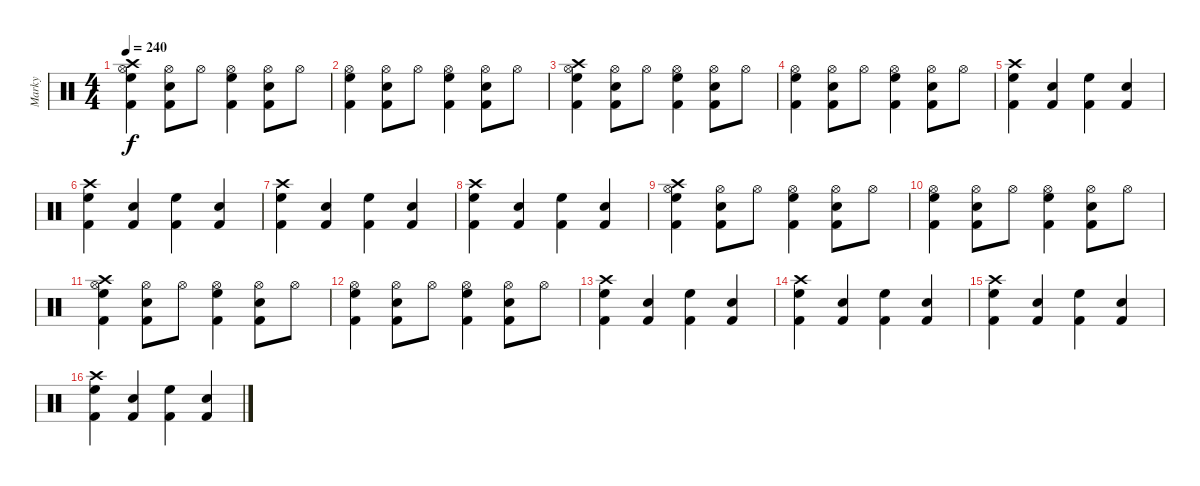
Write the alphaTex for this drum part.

\track ("Marky" "Marky") {instrument percussion}
\staff {score}
\articulation defaults
\ts (4 4)
\tempo 240
\clef neutral
\ks c
("Crash high (hit)" "Hi-Hat (open)" "High Floor Tom (hit)" "Kick (hit) 2").4{dy f} ("Hi-Hat (open)" "Electric Snare (hit)" "Kick (hit) 2").8 "Hi-Hat (open)".8 ("Hi-Hat (open)" "High Floor Tom (hit)" "Kick (hit) 2").4 ("Hi-Hat (open)" "Electric Snare (hit)" "Kick (hit) 2").8 "Hi-Hat (open)".8 |
("Hi-Hat (open)" "High Floor Tom (hit)" "Kick (hit) 2").4 ("Hi-Hat (open)" "Electric Snare (hit)" "Kick (hit) 2").8 "Hi-Hat (open)".8 ("Hi-Hat (open)" "High Floor Tom (hit)" "Kick (hit) 2").4 ("Hi-Hat (open)" "Electric Snare (hit)" "Kick (hit) 2").8 "Hi-Hat (open)".8 |
("Crash high (hit)" "Hi-Hat (open)" "High Floor Tom (hit)" "Kick (hit) 2").4 ("Hi-Hat (open)" "Electric Snare (hit)" "Kick (hit) 2").8 "Hi-Hat (open)".8 ("Hi-Hat (open)" "High Floor Tom (hit)" "Kick (hit) 2").4 ("Hi-Hat (open)" "Electric Snare (hit)" "Kick (hit) 2").8 "Hi-Hat (open)".8 |
("Hi-Hat (open)" "High Floor Tom (hit)" "Kick (hit) 2").4 ("Hi-Hat (open)" "Electric Snare (hit)" "Kick (hit) 2").8 "Hi-Hat (open)".8 ("Hi-Hat (open)" "High Floor Tom (hit)" "Kick (hit) 2").4 ("Hi-Hat (open)" "Electric Snare (hit)" "Kick (hit) 2").8 "Hi-Hat (open)".8 |
("Crash high (hit)" "High Floor Tom (hit)" "Kick (hit) 2").4 ("Electric Snare (hit)" "Kick (hit) 2").4 ("High Floor Tom (hit)" "Kick (hit) 2").4 ("Electric Snare (hit)" "Kick (hit) 2").4 |
("Crash high (hit)" "High Floor Tom (hit)" "Kick (hit) 2").4 ("Electric Snare (hit)" "Kick (hit) 2").4 ("High Floor Tom (hit)" "Kick (hit) 2").4 ("Electric Snare (hit)" "Kick (hit) 2").4 |
("Crash high (hit)" "High Floor Tom (hit)" "Kick (hit) 2").4 ("Electric Snare (hit)" "Kick (hit) 2").4 ("High Floor Tom (hit)" "Kick (hit) 2").4 ("Electric Snare (hit)" "Kick (hit) 2").4 |
("Crash high (hit)" "High Floor Tom (hit)" "Kick (hit) 2").4 ("Electric Snare (hit)" "Kick (hit) 2").4 ("High Floor Tom (hit)" "Kick (hit) 2").4 ("Electric Snare (hit)" "Kick (hit) 2").4 |
("Crash high (hit)" "Hi-Hat (open)" "High Floor Tom (hit)" "Kick (hit) 2").4 ("Hi-Hat (open)" "Electric Snare (hit)" "Kick (hit) 2").8 "Hi-Hat (open)".8 ("Hi-Hat (open)" "High Floor Tom (hit)" "Kick (hit) 2").4 ("Hi-Hat (open)" "Electric Snare (hit)" "Kick (hit) 2").8 "Hi-Hat (open)".8 |
("Hi-Hat (open)" "High Floor Tom (hit)" "Kick (hit) 2").4 ("Hi-Hat (open)" "Electric Snare (hit)" "Kick (hit) 2").8 "Hi-Hat (open)".8 ("Hi-Hat (open)" "High Floor Tom (hit)" "Kick (hit) 2").4 ("Hi-Hat (open)" "Electric Snare (hit)" "Kick (hit) 2").8 "Hi-Hat (open)".8 |
("Crash high (hit)" "Hi-Hat (open)" "High Floor Tom (hit)" "Kick (hit) 2").4 ("Hi-Hat (open)" "Electric Snare (hit)" "Kick (hit) 2").8 "Hi-Hat (open)".8 ("Hi-Hat (open)" "High Floor Tom (hit)" "Kick (hit) 2").4 ("Hi-Hat (open)" "Electric Snare (hit)" "Kick (hit) 2").8 "Hi-Hat (open)".8 |
("Hi-Hat (open)" "High Floor Tom (hit)" "Kick (hit) 2").4 ("Hi-Hat (open)" "Electric Snare (hit)" "Kick (hit) 2").8 "Hi-Hat (open)".8 ("Hi-Hat (open)" "High Floor Tom (hit)" "Kick (hit) 2").4 ("Hi-Hat (open)" "Electric Snare (hit)" "Kick (hit) 2").8 "Hi-Hat (open)".8 |
("Crash high (hit)" "High Floor Tom (hit)" "Kick (hit) 2").4 ("Electric Snare (hit)" "Kick (hit) 2").4 ("High Floor Tom (hit)" "Kick (hit) 2").4 ("Electric Snare (hit)" "Kick (hit) 2").4 |
("Crash high (hit)" "High Floor Tom (hit)" "Kick (hit) 2").4 ("Electric Snare (hit)" "Kick (hit) 2").4 ("High Floor Tom (hit)" "Kick (hit) 2").4 ("Electric Snare (hit)" "Kick (hit) 2").4 |
("Crash high (hit)" "High Floor Tom (hit)" "Kick (hit) 2").4 ("Electric Snare (hit)" "Kick (hit) 2").4 ("High Floor Tom (hit)" "Kick (hit) 2").4 ("Electric Snare (hit)" "Kick (hit) 2").4 |
("Crash high (hit)" "High Floor Tom (hit)" "Kick (hit) 2").4 ("Electric Snare (hit)" "Kick (hit) 2").4 ("High Floor Tom (hit)" "Kick (hit) 2").4 ("Electric Snare (hit)" "Kick (hit) 2").4
